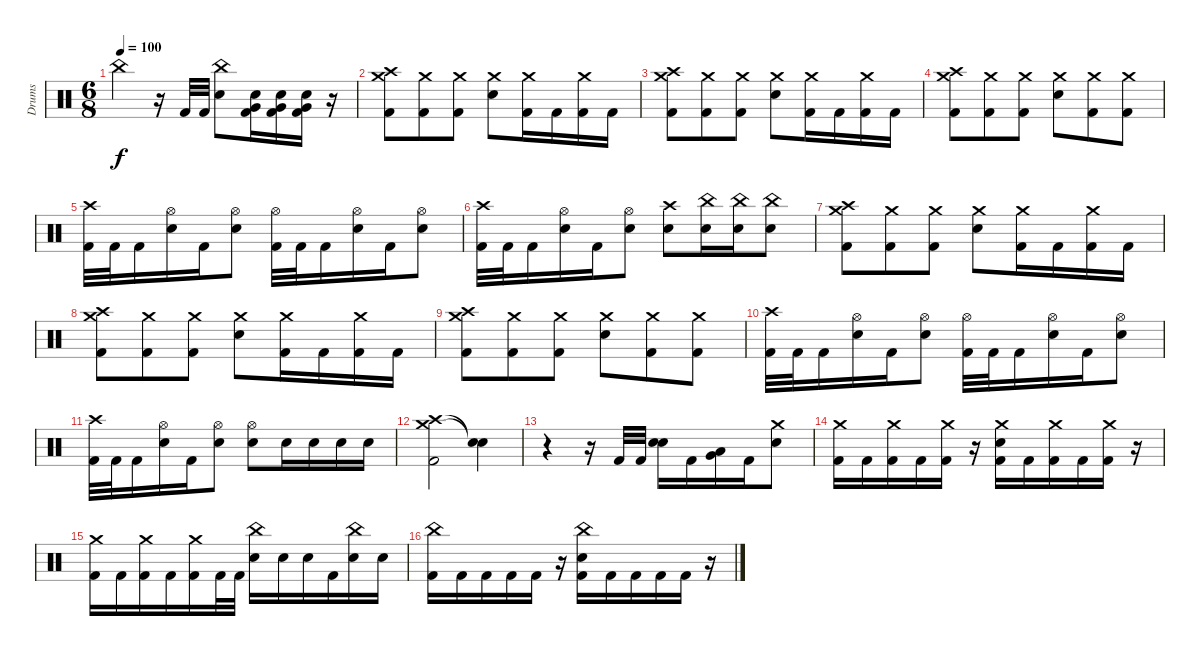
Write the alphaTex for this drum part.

\track ("Drums" "Drums") {instrument percussion}
\staff {score}
\articulation defaults
\ts (6 8)
\tempo 100
\clef neutral
\ks c "China (hit)".4{dy f}
r.16 "Kick (hit) 2".32 "Kick (hit) 2".32 ("China (hit)" "Electric Snare (hit)").8 ("Electric Snare (hit)" "Very Low Tom (hit)" "Kick (hit) 2").16 ("Electric Snare (hit)" "Very Low Tom (hit)" "Kick (hit) 2").16 ("Electric Snare (hit)" "Very Low Tom (hit)" "Kick (hit) 2").16 r.16 |
("Crash medium (hit)" "Crash high (hit)" "Kick (hit) 2").8 ("Crash medium (hit)" "Kick (hit) 2").8 ("Crash medium (hit)" "Kick (hit) 2").8 ("Crash medium (hit)" "Electric Snare (hit)").8 ("Crash medium (hit)" "Kick (hit) 2").16 "Kick (hit) 2".16 ("Crash medium (hit)" "Kick (hit) 2").16 "Kick (hit) 2".16 |
("Crash medium (hit)" "Crash high (hit)" "Kick (hit) 2").8 ("Crash medium (hit)" "Kick (hit) 2").8 ("Crash medium (hit)" "Kick (hit) 2").8 ("Crash medium (hit)" "Electric Snare (hit)").8 ("Crash medium (hit)" "Kick (hit) 2").16 "Kick (hit) 2".16 ("Crash medium (hit)" "Kick (hit) 2").16 "Kick (hit) 2".16 |
("Crash medium (hit)" "Crash high (hit)" "Kick (hit) 2").8 ("Crash medium (hit)" "Kick (hit) 2").8 ("Crash medium (hit)" "Kick (hit) 2").8 ("Crash medium (hit)" "Electric Snare (hit)").8 ("Crash medium (hit)" "Kick (hit) 2").8 ("Crash medium (hit)" "Kick (hit) 2").8 |
("Crash high (hit)" "Kick (hit) 2").32 "Kick (hit) 2".32 "Kick (hit) 2".16 ("Hi-Hat (open)" "Electric Snare (hit)").16 "Kick (hit) 2".16 ("Hi-Hat (open)" "Electric Snare (hit)").8 ("Hi-Hat (open)" "Kick (hit) 2").32 "Kick (hit) 2".32 "Kick (hit) 2".16 ("Hi-Hat (open)" "Electric Snare (hit)").16 "Kick (hit) 2".16 ("Hi-Hat (open)" "Electric Snare (hit)").8 |
("Crash high (hit)" "Kick (hit) 2").32 "Kick (hit) 2".32 "Kick (hit) 2".16 ("Hi-Hat (open)" "Electric Snare (hit)").16 "Kick (hit) 2".16 ("Hi-Hat (open)" "Electric Snare (hit)").8 ("Crash high (hit)" "Electric Snare (hit)").8 ("China (hit)" "Electric Snare (hit)").16 ("China (hit)" "Electric Snare (hit)").16 ("China (hit)" "Electric Snare (hit)").8 |
("Crash medium (hit)" "Crash high (hit)" "Kick (hit) 2").8 ("Crash medium (hit)" "Kick (hit) 2").8 ("Crash medium (hit)" "Kick (hit) 2").8 ("Crash medium (hit)" "Electric Snare (hit)").8 ("Crash medium (hit)" "Kick (hit) 2").16 "Kick (hit) 2".16 ("Crash medium (hit)" "Kick (hit) 2").16 "Kick (hit) 2".16 |
("Crash medium (hit)" "Crash high (hit)" "Kick (hit) 2").8 ("Crash medium (hit)" "Kick (hit) 2").8 ("Crash medium (hit)" "Kick (hit) 2").8 ("Crash medium (hit)" "Electric Snare (hit)").8 ("Crash medium (hit)" "Kick (hit) 2").16 "Kick (hit) 2".16 ("Crash medium (hit)" "Kick (hit) 2").16 "Kick (hit) 2".16 |
("Crash medium (hit)" "Crash high (hit)" "Kick (hit) 2").8 ("Crash medium (hit)" "Kick (hit) 2").8 ("Crash medium (hit)" "Kick (hit) 2").8 ("Crash medium (hit)" "Electric Snare (hit)").8 ("Crash medium (hit)" "Kick (hit) 2").8 ("Crash medium (hit)" "Kick (hit) 2").8 |
("Crash high (hit)" "Kick (hit) 2").32 "Kick (hit) 2".32 "Kick (hit) 2".16 ("Hi-Hat (open)" "Electric Snare (hit)").16 "Kick (hit) 2".16 ("Hi-Hat (open)" "Electric Snare (hit)").8 ("Hi-Hat (open)" "Kick (hit) 2").32 "Kick (hit) 2".32 "Kick (hit) 2".16 ("Hi-Hat (open)" "Electric Snare (hit)").16 "Kick (hit) 2".16 ("Hi-Hat (open)" "Electric Snare (hit)").8 |
("Crash high (hit)" "Kick (hit) 2").32 "Kick (hit) 2".32 "Kick (hit) 2".16 ("Hi-Hat (open)" "Electric Snare (hit)").16 "Kick (hit) 2".16 ("Hi-Hat (open)" "Electric Snare (hit)").8 ("Hi-Hat (open)" "Electric Snare (hit)").8 "Electric Snare (hit)".16 "Electric Snare (hit)".16 "Electric Snare (hit)".16 "Electric Snare (hit)".16 |
("Crash medium (hit)" "Crash high (hit)" "Kick (hit) 2").2 ("Snare (hit)"{t} "Snare (hit)"{t}).4 |
r.4 r.16 "Kick (hit) 2".32 "Kick (hit) 2".32 ("Electric Snare (hit)" "Electric Snare (hit)").16 "Kick (hit) 2".16 ("Low Tom (hit)" "Very Low Tom (hit)").16 "Kick (hit) 2".16 ("Crash medium (hit)" "Electric Snare (hit)").8 |
("Crash medium (hit)" "Kick (hit) 2").16 "Kick (hit) 2".16 ("Crash medium (hit)" "Kick (hit) 2").16 "Kick (hit) 2".16 ("Crash medium (hit)" "Kick (hit) 2").16 r.16 ("Crash medium (hit)" "Electric Snare (hit)" "Kick (hit) 2").16 "Kick (hit) 2".16 ("Crash medium (hit)" "Kick (hit) 2").16 "Kick (hit) 2".16 ("Crash medium (hit)" "Kick (hit) 2").16 r.16 |
("Crash medium (hit)" "Kick (hit) 2").16 "Kick (hit) 2".16 ("Crash medium (hit)" "Kick (hit) 2").16 "Kick (hit) 2".16 ("Crash medium (hit)" "Kick (hit) 2").16 "Kick (hit) 2".32 "Kick (hit) 2".32 ("China (hit)" "Electric Snare (hit)").16 "Electric Snare (hit)".16 "Electric Snare (hit)".16 "Kick (hit) 2".16 ("China (hit)" "Electric Snare (hit)").16 "Electric Snare (hit)".16 |
("China (hit)" "Kick (hit) 2").16 "Kick (hit) 2".16 "Kick (hit) 2".16 "Kick (hit) 2".16 "Kick (hit) 2".16 r.16 ("China (hit)" "Electric Snare (hit)" "Kick (hit) 2").16 "Kick (hit) 2".16 "Kick (hit) 2".16 "Kick (hit) 2".16 "Kick (hit) 2".16 r.16
